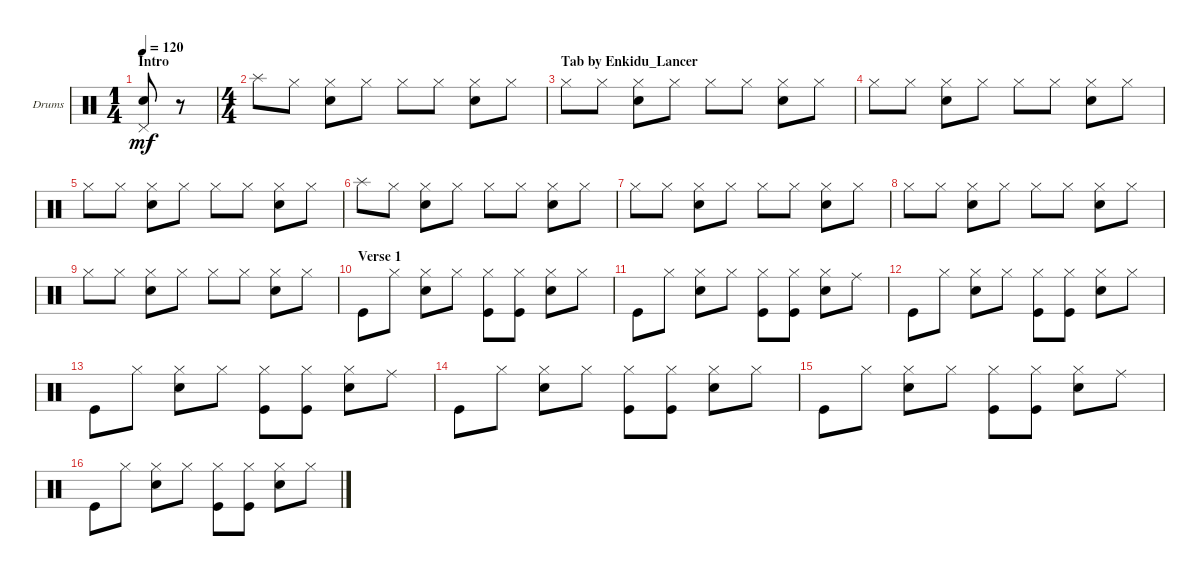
\bracketExtendMode groupsimilarinstruments
\firstSystemTrackNameOrientation horizontal
\otherSystemsTrackNameOrientation horizontal
\track ("Drumkit" "Drums") {instrument percussion}
\staff {score}
\articulation defaults
\ts (1 4)
\section ("" "Intro")
\tempo 120
\clef neutral
\ks c
("Pedal Hi-Hat (hit)" "Snare (hit) 2").8{dy mf} r.8 |
\ts (4 4)
"Splash (hit)".8 "Hi-Hat (closed)".8 ("Hi-Hat (closed)" "Snare (hit) 2").8 "Hi-Hat (closed)".8 "Hi-Hat (closed)".8 "Hi-Hat (closed)".8 ("Hi-Hat (closed)" "Snare (hit) 2").8 "Hi-Hat (closed)".8 |
\section ("" "Tab by Enkidu_Lancer")
"Hi-Hat (closed)".8 "Hi-Hat (closed)".8 ("Hi-Hat (closed)" "Snare (hit) 2").8 "Hi-Hat (closed)".8 "Hi-Hat (closed)".8 "Hi-Hat (closed)".8 ("Hi-Hat (closed)" "Snare (hit) 2").8 "Hi-Hat (closed)".8 |
"Hi-Hat (closed)".8 "Hi-Hat (closed)".8 ("Hi-Hat (closed)" "Snare (hit) 2").8 "Hi-Hat (closed)".8 "Hi-Hat (closed)".8 "Hi-Hat (closed)".8 ("Hi-Hat (closed)" "Snare (hit) 2").8 "Hi-Hat (closed)".8 |
"Hi-Hat (closed)".8 "Hi-Hat (closed)".8 ("Hi-Hat (closed)" "Snare (hit) 2").8 "Hi-Hat (closed)".8 "Hi-Hat (closed)".8 "Hi-Hat (closed)".8 ("Hi-Hat (closed)" "Snare (hit) 2").8 "Hi-Hat (closed)".8 |
"Splash (hit)".8 "Hi-Hat (closed)".8 ("Hi-Hat (closed)" "Snare (hit) 2").8 "Hi-Hat (closed)".8 "Hi-Hat (closed)".8 "Hi-Hat (closed)".8 ("Hi-Hat (closed)" "Snare (hit) 2").8 "Hi-Hat (closed)".8 |
"Hi-Hat (closed)".8 "Hi-Hat (closed)".8 ("Hi-Hat (closed)" "Snare (hit) 2").8 "Hi-Hat (closed)".8 "Hi-Hat (closed)".8 "Hi-Hat (closed)".8 ("Hi-Hat (closed)" "Snare (hit) 2").8 "Hi-Hat (closed)".8 |
"Hi-Hat (closed)".8 "Hi-Hat (closed)".8 ("Hi-Hat (closed)" "Snare (hit) 2").8 "Hi-Hat (closed)".8 "Hi-Hat (closed)".8 "Hi-Hat (closed)".8 ("Hi-Hat (closed)" "Snare (hit) 2").8 "Hi-Hat (closed)".8 |
"Hi-Hat (closed)".8 "Hi-Hat (closed)".8 ("Hi-Hat (closed)" "Snare (hit) 2").8 "Hi-Hat (closed)".8 "Hi-Hat (closed)".8 "Hi-Hat (closed)".8 ("Hi-Hat (closed)" "Snare (hit) 2").8 "Hi-Hat (closed)".8 |
\section ("" "Verse 1")
"Kick (hit)".8 "Hi-Hat (closed)".8 ("Snare (hit) 2" "Hi-Hat (closed)").8 "Hi-Hat (closed)".8 ("Kick (hit)" "Hi-Hat (closed)").8 ("Kick (hit)" "Hi-Hat (closed)").8 ("Snare (hit) 2" "Hi-Hat (closed)").8 "Hi-Hat (closed)".8 |
"Kick (hit)".8 "Hi-Hat (closed)".8 ("Snare (hit) 2" "Hi-Hat (closed)").8 "Hi-Hat (closed)".8 ("Kick (hit)" "Hi-Hat (closed)").8 ("Kick (hit)" "Hi-Hat (closed)").8 ("Snare (hit) 2" "Hi-Hat (closed)").8 "Ride (middle)".8 |
"Kick (hit)".8 "Hi-Hat (closed)".8 ("Snare (hit) 2" "Hi-Hat (closed)").8 "Hi-Hat (closed)".8 ("Kick (hit)" "Hi-Hat (closed)").8 ("Kick (hit)" "Hi-Hat (closed)").8 ("Snare (hit) 2" "Hi-Hat (closed)").8 "Hi-Hat (closed)".8 |
"Kick (hit)".8 "Hi-Hat (closed)".8 ("Snare (hit) 2" "Hi-Hat (closed)").8 "Hi-Hat (closed)".8 ("Kick (hit)" "Hi-Hat (closed)").8 ("Kick (hit)" "Hi-Hat (closed)").8 ("Snare (hit) 2" "Hi-Hat (closed)").8 "Ride (middle)".8 |
"Kick (hit)".8 "Hi-Hat (closed)".8 ("Snare (hit) 2" "Hi-Hat (closed)").8 "Hi-Hat (closed)".8 ("Kick (hit)" "Hi-Hat (closed)").8 ("Kick (hit)" "Hi-Hat (closed)").8 ("Snare (hit) 2" "Hi-Hat (closed)").8 "Hi-Hat (closed)".8 |
"Kick (hit)".8 "Hi-Hat (closed)".8 ("Snare (hit) 2" "Hi-Hat (closed)").8 "Hi-Hat (closed)".8 ("Kick (hit)" "Hi-Hat (closed)").8 ("Kick (hit)" "Hi-Hat (closed)").8 ("Snare (hit) 2" "Hi-Hat (closed)").8 "Ride (middle)".8 |
"Kick (hit)".8 "Hi-Hat (closed)".8 ("Snare (hit) 2" "Hi-Hat (closed)").8 "Hi-Hat (closed)".8 ("Kick (hit)" "Hi-Hat (closed)").8 ("Kick (hit)" "Hi-Hat (closed)").8 ("Snare (hit) 2" "Hi-Hat (closed)").8 "Hi-Hat (closed)".8
